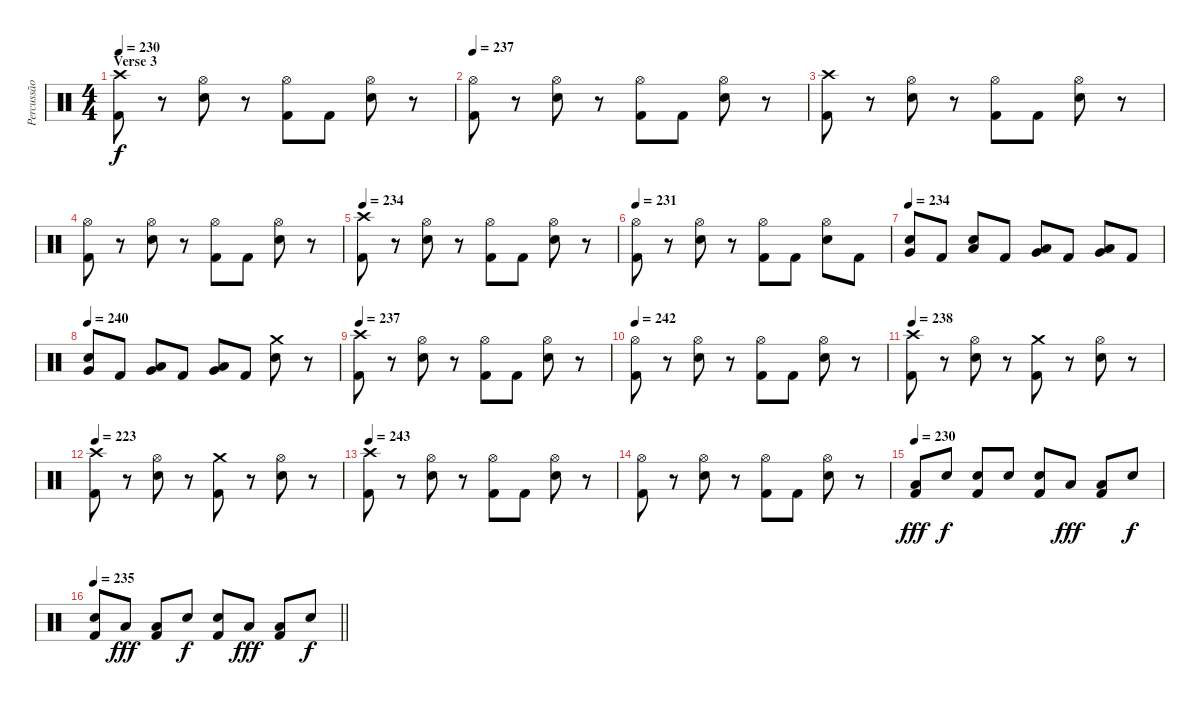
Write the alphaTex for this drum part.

\track ("Percussão" "Percussão") {instrument percussion}
\staff {score}
\articulation defaults
\ts (4 4)
\section ("" "Verse 3")
\tempo 230
\clef neutral
\ks c
("Crash high (hit)" "Kick (hit) 2").8{dy f} r.8 ("Hi-Hat (open)" "Electric Snare (hit)").8 r.8 ("Hi-Hat (open)" "Kick (hit) 2").8 "Kick (hit) 2".8 ("Hi-Hat (open)" "Electric Snare (hit)").8 r.8 |
\tempo 237
("Hi-Hat (open)" "Kick (hit) 2").8 r.8 ("Hi-Hat (open)" "Electric Snare (hit)").8 r.8 ("Hi-Hat (open)" "Kick (hit) 2").8 "Kick (hit) 2".8 ("Hi-Hat (open)" "Electric Snare (hit)").8 r.8 |
("Crash high (hit)" "Kick (hit) 2").8 r.8 ("Hi-Hat (open)" "Electric Snare (hit)").8 r.8 ("Hi-Hat (open)" "Kick (hit) 2").8 "Kick (hit) 2".8 ("Hi-Hat (open)" "Electric Snare (hit)").8 r.8 |
("Hi-Hat (open)" "Kick (hit) 2").8 r.8 ("Hi-Hat (open)" "Electric Snare (hit)").8 r.8 ("Hi-Hat (open)" "Kick (hit) 2").8 "Kick (hit) 2".8 ("Hi-Hat (open)" "Electric Snare (hit)").8 r.8 |
\tempo 234
("Crash high (hit)" "Kick (hit) 2").8 r.8 ("Hi-Hat (open)" "Electric Snare (hit)").8 r.8 ("Hi-Hat (open)" "Kick (hit) 2").8 "Kick (hit) 2".8 ("Hi-Hat (open)" "Electric Snare (hit)").8 r.8 |
\tempo 231
("Hi-Hat (open)" "Kick (hit) 2").8 r.8 ("Hi-Hat (open)" "Electric Snare (hit)").8 r.8 ("Hi-Hat (open)" "Kick (hit) 2").8 "Kick (hit) 2".8 ("Hi-Hat (open)" "Electric Snare (hit)").8 "Kick (hit) 2".8 |
\tempo 234
("Very Low Tom (hit)" "Electric Snare (hit)").8 "Kick (hit) 2".8 ("Low Tom (hit)" "Electric Snare (hit)").8 "Kick (hit) 2".8 ("Low Tom (hit)" "Very Low Tom (hit)").8 "Kick (hit) 2".8 ("Low Tom (hit)" "Very Low Tom (hit)").8 "Kick (hit) 2".8 |
\tempo 240
("Very Low Tom (hit)" "Electric Snare (hit)").8 "Kick (hit) 2".8 ("Low Tom (hit)" "Very Low Tom (hit)").8 "Kick (hit) 2".8 ("Low Tom (hit)" "Very Low Tom (hit)").8 "Kick (hit) 2".8 ("Crash medium (hit)" "Electric Snare (hit)").8 r.8 |
\tempo 237
("Crash high (hit)" "Kick (hit) 2").8 r.8 ("Hi-Hat (open)" "Electric Snare (hit)").8 r.8 ("Hi-Hat (open)" "Kick (hit) 2").8 "Kick (hit) 2".8 ("Hi-Hat (open)" "Electric Snare (hit)").8 r.8 |
\tempo 242
("Hi-Hat (open)" "Kick (hit) 2").8 r.8 ("Hi-Hat (open)" "Electric Snare (hit)").8 r.8 ("Hi-Hat (open)" "Kick (hit) 2").8 "Kick (hit) 2".8 ("Hi-Hat (open)" "Electric Snare (hit)").8 r.8 |
\tempo 238
("Crash high (hit)" "Kick (hit) 2").8 r.8 ("Hi-Hat (open)" "Electric Snare (hit)").8 r.8 ("Crash medium (hit)" "Kick (hit) 2").8 r.8 ("Hi-Hat (open)" "Electric Snare (hit)").8 r.8 |
\tempo 223
("Crash high (hit)" "Kick (hit) 2").8 r.8 ("Hi-Hat (open)" "Electric Snare (hit)").8 r.8 ("Crash medium (hit)" "Kick (hit) 2").8 r.8 ("Hi-Hat (open)" "Electric Snare (hit)").8 r.8 |
\tempo 243
("Crash high (hit)" "Kick (hit) 2").8 r.8 ("Hi-Hat (open)" "Electric Snare (hit)").8 r.8 ("Hi-Hat (open)" "Kick (hit) 2").8 "Kick (hit) 2".8 ("Hi-Hat (open)" "Electric Snare (hit)").8 r.8 |
("Hi-Hat (open)" "Kick (hit) 2").8 r.8 ("Hi-Hat (open)" "Electric Snare (hit)").8 r.8 ("Hi-Hat (open)" "Kick (hit) 2").8 "Kick (hit) 2".8 ("Hi-Hat (open)" "Electric Snare (hit)").8 r.8 |
\tempo 230
("Low Tom (hit)" "Kick (hit) 2").8{dy fff} "Electric Snare (hit)".8{dy f} ("Electric Snare (hit)" "Kick (hit) 2").8 "Electric Snare (hit)".8 ("Electric Snare (hit)" "Kick (hit) 2").8 "Low Tom (hit)".8{dy fff} ("Low Tom (hit)" "Kick (hit) 2").8 "Electric Snare (hit)".8{dy f} |
\tempo 235
\barLineRight lightlight
("Electric Snare (hit)" "Kick (hit) 2").8 "Low Tom (hit)".8{dy fff} ("Low Tom (hit)" "Kick (hit) 2").8 "Electric Snare (hit)".8{dy f} ("Electric Snare (hit)" "Kick (hit) 2").8 "Low Tom (hit)".8{dy fff} ("Low Tom (hit)" "Kick (hit) 2").8 "Electric Snare (hit)".8{dy f}
